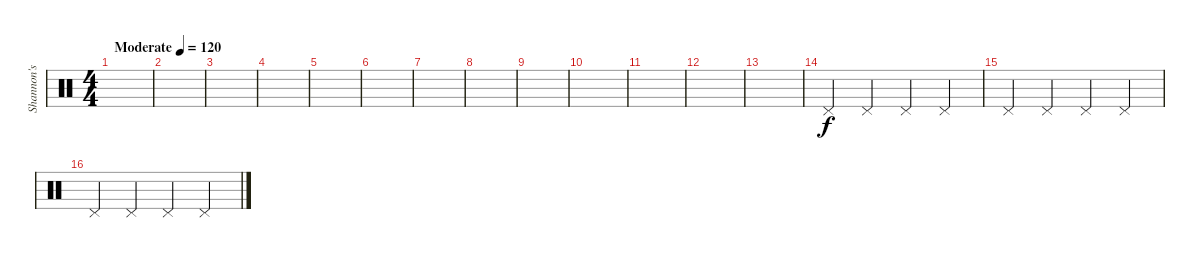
\track ("Shannon's Hi-Hat" "Shannon's ") {instrument percussion}
\staff {score}
\articulation defaults
\ts (4 4)
\tempo (120 "Moderate")
\clef neutral
\ks c
|
|
|
|
|
|
|
|
|
|
|
|
|
"Pedal Hi-Hat (hit)".4 "Pedal Hi-Hat (hit)".4 "Pedal Hi-Hat (hit)".4 "Pedal Hi-Hat (hit)".4 |
"Pedal Hi-Hat (hit)".4 "Pedal Hi-Hat (hit)".4 "Pedal Hi-Hat (hit)".4 "Pedal Hi-Hat (hit)".4 |
"Pedal Hi-Hat (hit)".4 "Pedal Hi-Hat (hit)".4 "Pedal Hi-Hat (hit)".4 "Pedal Hi-Hat (hit)".4
